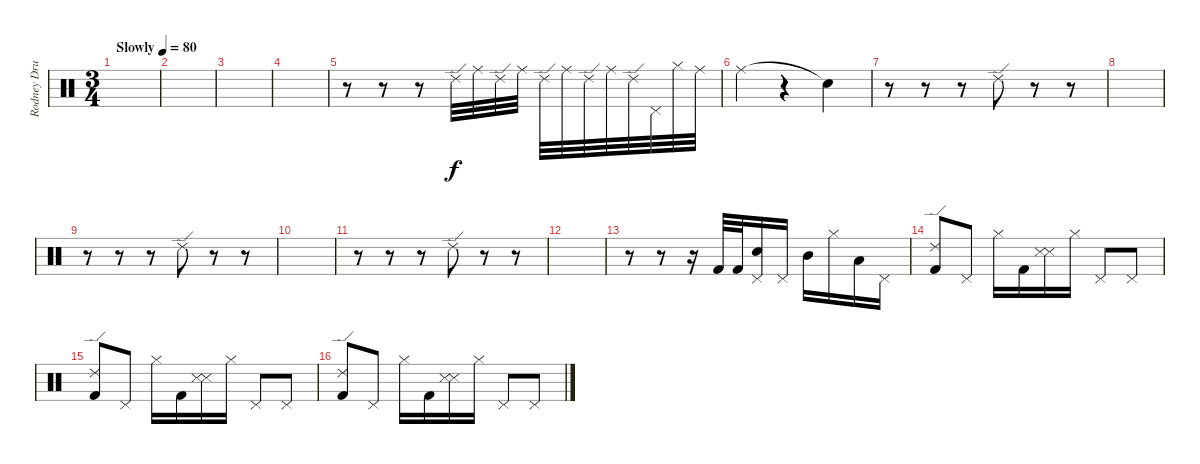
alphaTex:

\track ("Rodney Drums" "Rodney Dru") {instrument percussion}
\staff {score}
\articulation defaults
\ts (3 4)
\tempo (80 "Slowly")
\clef neutral
\ks c
|
|
|
|
r.8 r.8 r.8 "Ride (edge) 2".32 "Ride (middle)".32 "Ride (edge) 2".32 "Ride (middle)".32 "Ride (edge) 2".32 "Ride (middle)".32 "Ride (edge) 2".32 "Ride (middle)".32 "Ride (edge) 2".32 "Pedal Hi-Hat (hit)".32 "Hi-Hat (closed)".32 "Ride (middle)".32 |
"Ride (middle)".4 r.4 "Snare (hit)"{t}.4 |
r.8 r.8 r.8 "Ride (edge) 2".8 r.8 r.8 |
|
r.8 r.8 r.8 "Ride (edge) 2".8 r.8 r.8 |
|
r.8 r.8 r.8 "Ride (edge) 2".8 r.8 r.8 |
|
r.8 r.8 r.16 "Kick (hit) 2".32 "Kick (hit) 2".32 ("Pedal Hi-Hat (hit)" "Electric Snare (hit)").16 "Pedal Hi-Hat (hit)".16 "Mid Tom (hit)".16 "Hi-Hat (closed)".16 "Low Tom (hit)".16 "Pedal Hi-Hat (hit)".16 |
("Ride (edge) 2" "Kick (hit) 2").8 "Pedal Hi-Hat (hit)".8 "Hi-Hat (closed)".16 "Kick (hit) 2".16 ("Snare (side stick) 3" "Metronome (hit)").16 "Hi-Hat (closed)".16 "Pedal Hi-Hat (hit)".8 "Pedal Hi-Hat (hit)".8 |
("Ride (edge) 2" "Kick (hit) 2").8 "Pedal Hi-Hat (hit)".8 "Hi-Hat (closed)".16 "Kick (hit) 2".16 ("Snare (side stick) 3" "Metronome (hit)").16 "Hi-Hat (closed)".16 "Pedal Hi-Hat (hit)".8 "Pedal Hi-Hat (hit)".8 |
("Ride (edge) 2" "Kick (hit) 2").8 "Pedal Hi-Hat (hit)".8 "Hi-Hat (closed)".16 "Kick (hit) 2".16 ("Snare (side stick) 3" "Metronome (hit)").16 "Hi-Hat (closed)".16 "Pedal Hi-Hat (hit)".8 "Pedal Hi-Hat (hit)".8
